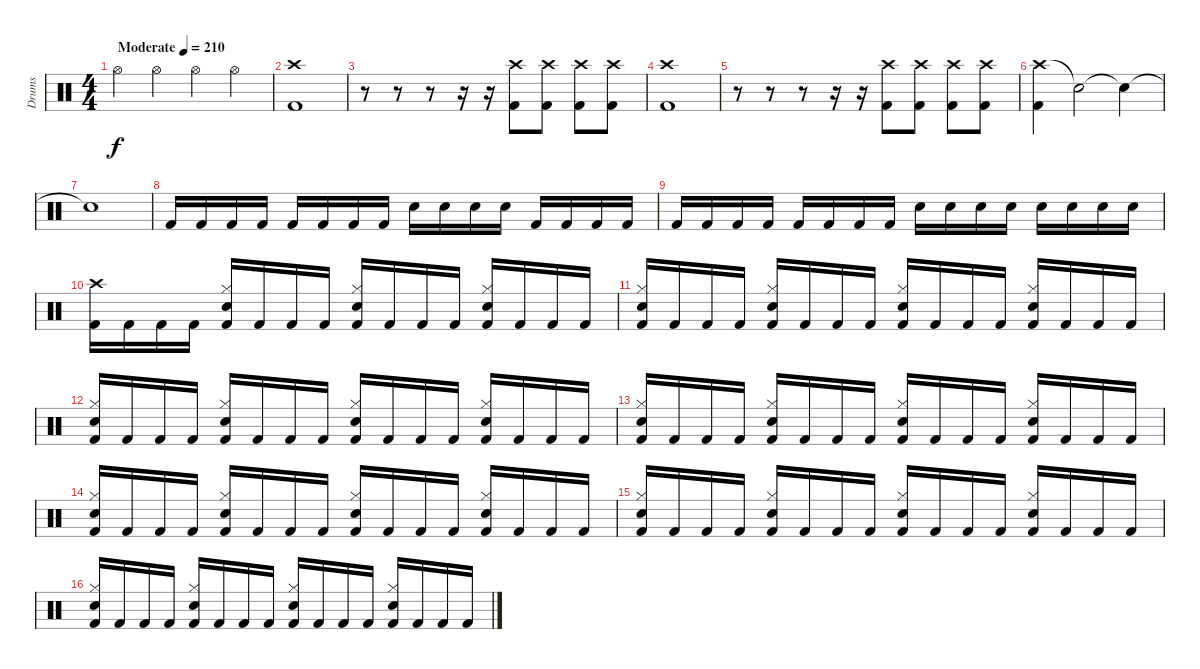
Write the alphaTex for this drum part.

\track ("Drums" "Drums") {instrument percussion}
\staff {score}
\articulation defaults
\ts (4 4)
\tempo (210 "Moderate")
\clef neutral
\ks c "Hi-Hat (open)".4{dy f} "Hi-Hat (open)".4 "Hi-Hat (open)".4 "Hi-Hat (open)".4
|
("Crash high (hit)" "Kick (hit) 2").1 |
r.8 r.8 r.8 r.16 r.16 ("Crash high (hit)" "Kick (hit) 2").8 ("Crash high (hit)" "Kick (hit) 2").8 ("Crash high (hit)" "Kick (hit) 2").8 ("Crash high (hit)" "Kick (hit) 2").8 |
("Crash high (hit)" "Kick (hit) 2").1 |
r.8 r.8 r.8 r.16 r.16 ("Crash high (hit)" "Kick (hit) 2").8 ("Crash high (hit)" "Kick (hit) 2").8 ("Crash high (hit)" "Kick (hit) 2").8 ("Crash high (hit)" "Kick (hit) 2").8 |
("Crash high (hit)" "Kick (hit) 2").4 "Snare (hit)"{t}.2 "Snare (hit)"{t}.4 |
"Snare (hit)"{t}.1 |
"Kick (hit) 2".16 "Kick (hit) 2".16 "Kick (hit) 2".16 "Kick (hit) 2".16 "Kick (hit) 2".16 "Kick (hit) 2".16 "Kick (hit) 2".16 "Kick (hit) 2".16 "Snare (hit) 2".16 "Snare (hit) 2".16 "Snare (hit) 2".16 "Snare (hit) 2".16 "Kick (hit) 2".16 "Kick (hit) 2".16 "Kick (hit) 2".16 "Kick (hit) 2".16 |
"Kick (hit) 2".16 "Kick (hit) 2".16 "Kick (hit) 2".16 "Kick (hit) 2".16 "Kick (hit) 2".16 "Kick (hit) 2".16 "Kick (hit) 2".16 "Kick (hit) 2".16 "Snare (hit) 2".16 "Snare (hit) 2".16 "Snare (hit) 2".16 "Snare (hit) 2".16 "Snare (hit) 2".16 "Snare (hit) 2".16 "Snare (hit) 2".16 "Snare (hit) 2".16 |
("Crash high (hit)" "Kick (hit) 2").16 "Kick (hit) 2".16 "Kick (hit) 2".16 "Kick (hit) 2".16 ("Hi-Hat (closed)" "Electric Snare (hit)" "Kick (hit) 2").16 "Kick (hit) 2".16 "Kick (hit) 2".16 "Kick (hit) 2".16 ("Hi-Hat (closed)" "Electric Snare (hit)" "Kick (hit) 2").16 "Kick (hit) 2".16 "Kick (hit) 2".16 "Kick (hit) 2".16 ("Hi-Hat (closed)" "Electric Snare (hit)" "Kick (hit) 2").16 "Kick (hit) 2".16 "Kick (hit) 2".16 "Kick (hit) 2".16 |
("Hi-Hat (closed)" "Electric Snare (hit)" "Kick (hit) 2").16 "Kick (hit) 2".16 "Kick (hit) 2".16 "Kick (hit) 2".16 ("Hi-Hat (closed)" "Electric Snare (hit)" "Kick (hit) 2").16 "Kick (hit) 2".16 "Kick (hit) 2".16 "Kick (hit) 2".16 ("Hi-Hat (closed)" "Electric Snare (hit)" "Kick (hit) 2").16 "Kick (hit) 2".16 "Kick (hit) 2".16 "Kick (hit) 2".16 ("Hi-Hat (closed)" "Electric Snare (hit)" "Kick (hit) 2").16 "Kick (hit) 2".16 "Kick (hit) 2".16 "Kick (hit) 2".16 |
("Hi-Hat (closed)" "Electric Snare (hit)" "Kick (hit) 2").16 "Kick (hit) 2".16 "Kick (hit) 2".16 "Kick (hit) 2".16 ("Hi-Hat (closed)" "Electric Snare (hit)" "Kick (hit) 2").16 "Kick (hit) 2".16 "Kick (hit) 2".16 "Kick (hit) 2".16 ("Hi-Hat (closed)" "Electric Snare (hit)" "Kick (hit) 2").16 "Kick (hit) 2".16 "Kick (hit) 2".16 "Kick (hit) 2".16 ("Hi-Hat (closed)" "Electric Snare (hit)" "Kick (hit) 2").16 "Kick (hit) 2".16 "Kick (hit) 2".16 "Kick (hit) 2".16 |
("Hi-Hat (closed)" "Electric Snare (hit)" "Kick (hit) 2").16 "Kick (hit) 2".16 "Kick (hit) 2".16 "Kick (hit) 2".16 ("Hi-Hat (closed)" "Electric Snare (hit)" "Kick (hit) 2").16 "Kick (hit) 2".16 "Kick (hit) 2".16 "Kick (hit) 2".16 ("Hi-Hat (closed)" "Electric Snare (hit)" "Kick (hit) 2").16 "Kick (hit) 2".16 "Kick (hit) 2".16 "Kick (hit) 2".16 ("Hi-Hat (closed)" "Electric Snare (hit)" "Kick (hit) 2").16 "Kick (hit) 2".16 "Kick (hit) 2".16 "Kick (hit) 2".16 |
("Hi-Hat (closed)" "Electric Snare (hit)" "Kick (hit) 2").16 "Kick (hit) 2".16 "Kick (hit) 2".16 "Kick (hit) 2".16 ("Hi-Hat (closed)" "Electric Snare (hit)" "Kick (hit) 2").16 "Kick (hit) 2".16 "Kick (hit) 2".16 "Kick (hit) 2".16 ("Hi-Hat (closed)" "Electric Snare (hit)" "Kick (hit) 2").16 "Kick (hit) 2".16 "Kick (hit) 2".16 "Kick (hit) 2".16 ("Hi-Hat (closed)" "Electric Snare (hit)" "Kick (hit) 2").16 "Kick (hit) 2".16 "Kick (hit) 2".16 "Kick (hit) 2".16 |
("Hi-Hat (closed)" "Electric Snare (hit)" "Kick (hit) 2").16 "Kick (hit) 2".16 "Kick (hit) 2".16 "Kick (hit) 2".16 ("Hi-Hat (closed)" "Electric Snare (hit)" "Kick (hit) 2").16 "Kick (hit) 2".16 "Kick (hit) 2".16 "Kick (hit) 2".16 ("Hi-Hat (closed)" "Electric Snare (hit)" "Kick (hit) 2").16 "Kick (hit) 2".16 "Kick (hit) 2".16 "Kick (hit) 2".16 ("Hi-Hat (closed)" "Electric Snare (hit)" "Kick (hit) 2").16 "Kick (hit) 2".16 "Kick (hit) 2".16 "Kick (hit) 2".16 |
("Hi-Hat (closed)" "Electric Snare (hit)" "Kick (hit) 2").16 "Kick (hit) 2".16 "Kick (hit) 2".16 "Kick (hit) 2".16 ("Hi-Hat (closed)" "Electric Snare (hit)" "Kick (hit) 2").16 "Kick (hit) 2".16 "Kick (hit) 2".16 "Kick (hit) 2".16 ("Hi-Hat (closed)" "Electric Snare (hit)" "Kick (hit) 2").16 "Kick (hit) 2".16 "Kick (hit) 2".16 "Kick (hit) 2".16 ("Hi-Hat (closed)" "Electric Snare (hit)" "Kick (hit) 2").16 "Kick (hit) 2".16 "Kick (hit) 2".16 "Kick (hit) 2".16
